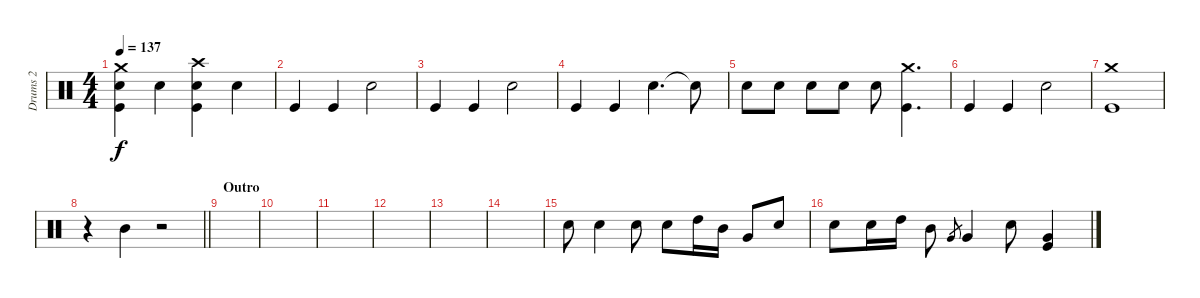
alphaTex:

\track ("Drums 2" "Drums 2") {instrument percussion}
\staff {score}
\articulation defaults
\ts (4 4)
\tempo 137
\clef neutral
\ks c
("Crash medium (hit)" "Snare (hit) 2" "Kick (hit)").4{dy f} "Snare (hit) 2".4 ("Crash high (hit)" "Snare (hit) 2" "Kick (hit)").4 "Snare (hit) 2".4 |
"Kick (hit)".4 "Kick (hit)".4 "Snare (hit) 2".2 |
"Kick (hit)".4 "Kick (hit)".4 "Snare (hit) 2".2 |
"Kick (hit)".4 "Kick (hit)".4 "Snare (hit) 2".4{d} "Snare (hit) 2"{t}.8 |
"Snare (hit) 2".8 "Snare (hit) 2".8 "Snare (hit) 2".8 "Snare (hit) 2".8 "Snare (hit) 2".8 ("Crash medium (hit)" "Kick (hit)").4{d} |
"Kick (hit)".4 "Kick (hit)".4 "Snare (hit) 2".2 |
("Crash medium (hit)" "Kick (hit)").1 |
\barLineRight lightlight
r.4 "Mid Tom (hit)".4 r.2 |
\section ("" "Outro")
|
|
|
|
|
|
"Snare (hit) 2".8 "Snare (hit) 2".4 "Snare (hit) 2".8 "Snare (hit) 2".8 "High Tom (hit)".16 "Mid Tom (hit)".16 "Very Low Tom (hit)".8 "Snare (hit) 2".8 |
"Snare (hit) 2".8 "Snare (hit) 2".16 "High Tom (hit)".16 "Mid Tom (hit)".8 "Very Low Tom (hit)".8{gr} "Very Low Tom (hit)".4 "Snare (hit) 2".8 ("Very Low Tom (hit)" "Kick (hit)").4
